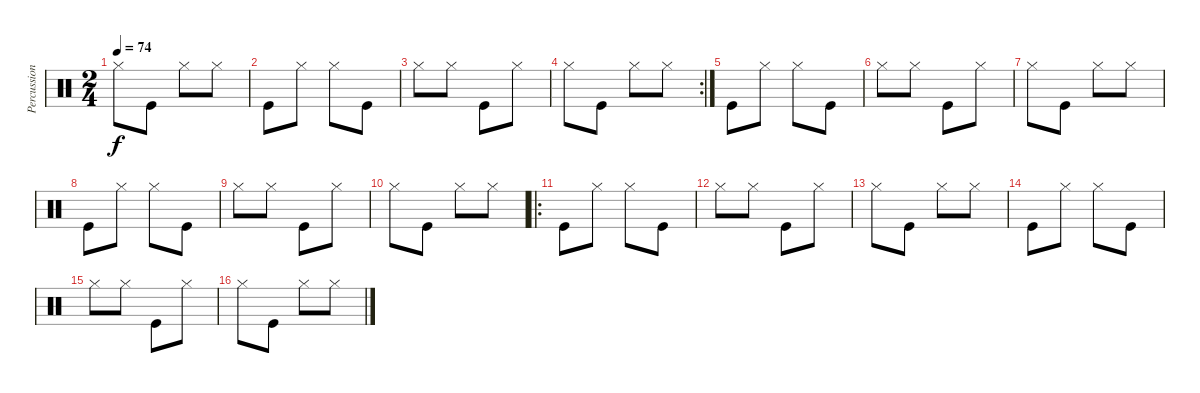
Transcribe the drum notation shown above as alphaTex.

\track ("Percussion" "Percussion") {instrument percussion}
\staff {score}
\articulation defaults
\ts (2 4)
\tempo 74
\clef neutral
\ks c "Hi-Hat (closed)".8{dy f} "Kick (hit)".8 "Hi-Hat (closed)".8 "Hi-Hat (closed)".8
|
"Kick (hit)".8 "Hi-Hat (closed)".8 "Hi-Hat (closed)".8 "Kick (hit)".8 |
"Hi-Hat (closed)".8 "Hi-Hat (closed)".8 "Kick (hit)".8 "Hi-Hat (closed)".8 |
\rc 2 "Hi-Hat (closed)".8 "Kick (hit)".8 "Hi-Hat (closed)".8 "Hi-Hat (closed)".8
|
"Kick (hit)".8 "Hi-Hat (closed)".8 "Hi-Hat (closed)".8 "Kick (hit)".8 |
"Hi-Hat (closed)".8 "Hi-Hat (closed)".8 "Kick (hit)".8 "Hi-Hat (closed)".8 |
"Hi-Hat (closed)".8 "Kick (hit)".8 "Hi-Hat (closed)".8 "Hi-Hat (closed)".8 |
"Kick (hit)".8 "Hi-Hat (closed)".8 "Hi-Hat (closed)".8 "Kick (hit)".8 |
"Hi-Hat (closed)".8 "Hi-Hat (closed)".8 "Kick (hit)".8 "Hi-Hat (closed)".8 |
"Hi-Hat (closed)".8 "Kick (hit)".8 "Hi-Hat (closed)".8 "Hi-Hat (closed)".8 |
\ro "Kick (hit)".8 "Hi-Hat (closed)".8 "Hi-Hat (closed)".8 "Kick (hit)".8
|
"Hi-Hat (closed)".8 "Hi-Hat (closed)".8 "Kick (hit)".8 "Hi-Hat (closed)".8 |
"Hi-Hat (closed)".8 "Kick (hit)".8 "Hi-Hat (closed)".8 "Hi-Hat (closed)".8 |
"Kick (hit)".8 "Hi-Hat (closed)".8 "Hi-Hat (closed)".8 "Kick (hit)".8 |
"Hi-Hat (closed)".8 "Hi-Hat (closed)".8 "Kick (hit)".8 "Hi-Hat (closed)".8 |
"Hi-Hat (closed)".8 "Kick (hit)".8 "Hi-Hat (closed)".8 "Hi-Hat (closed)".8
